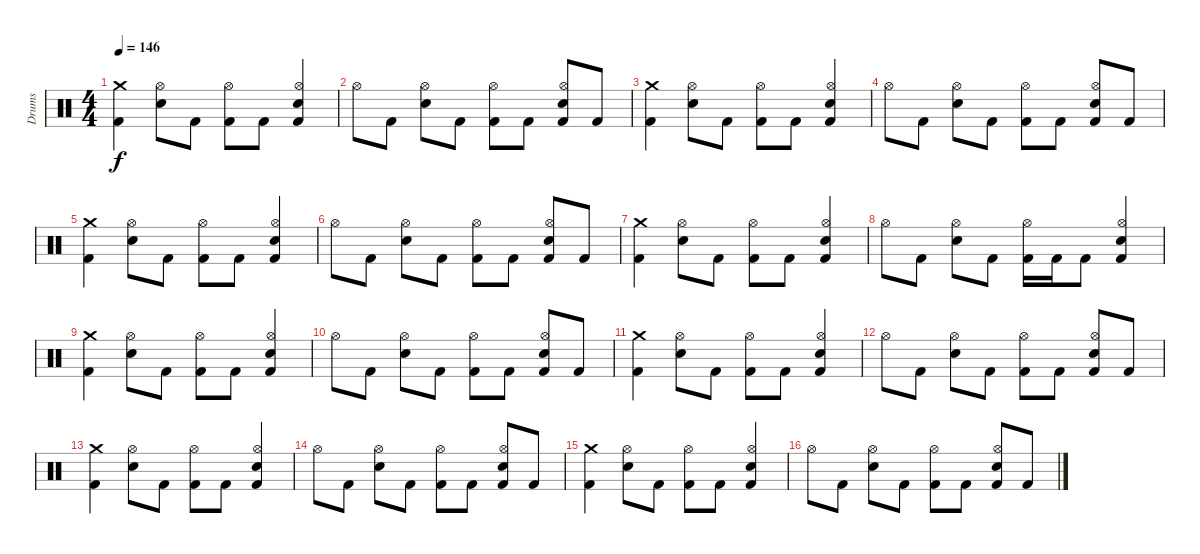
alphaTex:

\track ("Drums" "Drums") {instrument percussion}
\staff {score}
\articulation defaults
\ts (4 4)
\tempo 146
\clef neutral
\ks c
("Crash medium (hit)" "Kick (hit) 2").4{dy f} ("Hi-Hat (open)" "Snare (hit) 2").8 "Kick (hit) 2".8 ("Hi-Hat (open)" "Kick (hit) 2").8 "Kick (hit) 2".8 ("Hi-Hat (open)" "Snare (hit) 2" "Kick (hit) 2").4 |
"Hi-Hat (open)".8 "Kick (hit) 2".8 ("Hi-Hat (open)" "Snare (hit) 2").8 "Kick (hit) 2".8 ("Hi-Hat (open)" "Kick (hit) 2").8 "Kick (hit) 2".8 ("Hi-Hat (open)" "Snare (hit) 2" "Kick (hit) 2").8 "Kick (hit) 2".8 |
("Crash medium (hit)" "Kick (hit) 2").4 ("Hi-Hat (open)" "Snare (hit) 2").8 "Kick (hit) 2".8 ("Hi-Hat (open)" "Kick (hit) 2").8 "Kick (hit) 2".8 ("Hi-Hat (open)" "Snare (hit) 2" "Kick (hit) 2").4 |
"Hi-Hat (open)".8 "Kick (hit) 2".8 ("Hi-Hat (open)" "Snare (hit) 2").8 "Kick (hit) 2".8 ("Hi-Hat (open)" "Kick (hit) 2").8 "Kick (hit) 2".8 ("Hi-Hat (open)" "Snare (hit) 2" "Kick (hit) 2").8 "Kick (hit) 2".8 |
("Crash medium (hit)" "Kick (hit) 2").4 ("Hi-Hat (open)" "Snare (hit) 2").8 "Kick (hit) 2".8 ("Hi-Hat (open)" "Kick (hit) 2").8 "Kick (hit) 2".8 ("Hi-Hat (open)" "Snare (hit) 2" "Kick (hit) 2").4 |
"Hi-Hat (open)".8 "Kick (hit) 2".8 ("Hi-Hat (open)" "Snare (hit) 2").8 "Kick (hit) 2".8 ("Hi-Hat (open)" "Kick (hit) 2").8 "Kick (hit) 2".8 ("Hi-Hat (open)" "Snare (hit) 2" "Kick (hit) 2").8 "Kick (hit) 2".8 |
("Crash medium (hit)" "Kick (hit) 2").4 ("Hi-Hat (open)" "Snare (hit) 2").8 "Kick (hit) 2".8 ("Hi-Hat (open)" "Kick (hit) 2").8 "Kick (hit) 2".8 ("Hi-Hat (open)" "Snare (hit) 2" "Kick (hit) 2").4 |
"Hi-Hat (open)".8 "Kick (hit) 2".8 ("Hi-Hat (open)" "Snare (hit) 2").8 "Kick (hit) 2".8 ("Hi-Hat (open)" "Kick (hit) 2").16 "Kick (hit) 2".16 "Kick (hit) 2".8 ("Hi-Hat (open)" "Snare (hit) 2" "Kick (hit) 2").4 |
("Crash medium (hit)" "Kick (hit) 2").4 ("Hi-Hat (open)" "Snare (hit) 2").8 "Kick (hit) 2".8 ("Hi-Hat (open)" "Kick (hit) 2").8 "Kick (hit) 2".8 ("Hi-Hat (open)" "Snare (hit) 2" "Kick (hit) 2").4 |
"Hi-Hat (open)".8 "Kick (hit) 2".8 ("Hi-Hat (open)" "Snare (hit) 2").8 "Kick (hit) 2".8 ("Hi-Hat (open)" "Kick (hit) 2").8 "Kick (hit) 2".8 ("Hi-Hat (open)" "Snare (hit) 2" "Kick (hit) 2").8 "Kick (hit) 2".8 |
("Crash medium (hit)" "Kick (hit) 2").4 ("Hi-Hat (open)" "Snare (hit) 2").8 "Kick (hit) 2".8 ("Hi-Hat (open)" "Kick (hit) 2").8 "Kick (hit) 2".8 ("Hi-Hat (open)" "Snare (hit) 2" "Kick (hit) 2").4 |
"Hi-Hat (open)".8 "Kick (hit) 2".8 ("Hi-Hat (open)" "Snare (hit) 2").8 "Kick (hit) 2".8 ("Hi-Hat (open)" "Kick (hit) 2").8 "Kick (hit) 2".8 ("Hi-Hat (open)" "Snare (hit) 2" "Kick (hit) 2").8 "Kick (hit) 2".8 |
("Crash medium (hit)" "Kick (hit) 2").4 ("Hi-Hat (open)" "Snare (hit) 2").8 "Kick (hit) 2".8 ("Hi-Hat (open)" "Kick (hit) 2").8 "Kick (hit) 2".8 ("Hi-Hat (open)" "Snare (hit) 2" "Kick (hit) 2").4 |
"Hi-Hat (open)".8 "Kick (hit) 2".8 ("Hi-Hat (open)" "Snare (hit) 2").8 "Kick (hit) 2".8 ("Hi-Hat (open)" "Kick (hit) 2").8 "Kick (hit) 2".8 ("Hi-Hat (open)" "Snare (hit) 2" "Kick (hit) 2").8 "Kick (hit) 2".8 |
("Crash medium (hit)" "Kick (hit) 2").4 ("Hi-Hat (open)" "Snare (hit) 2").8 "Kick (hit) 2".8 ("Hi-Hat (open)" "Kick (hit) 2").8 "Kick (hit) 2".8 ("Hi-Hat (open)" "Snare (hit) 2" "Kick (hit) 2").4 |
"Hi-Hat (open)".8 "Kick (hit) 2".8 ("Hi-Hat (open)" "Snare (hit) 2").8 "Kick (hit) 2".8 ("Hi-Hat (open)" "Kick (hit) 2").8 "Kick (hit) 2".8 ("Hi-Hat (open)" "Snare (hit) 2" "Kick (hit) 2").8 "Kick (hit) 2".8
